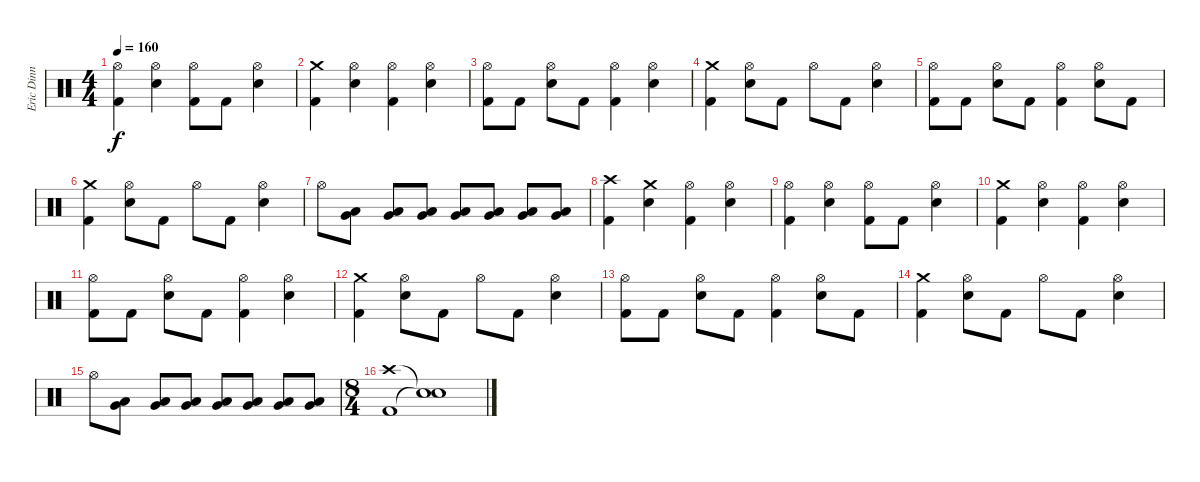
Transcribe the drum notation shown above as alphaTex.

\track ("Eric Dinn" "Eric Dinn") {instrument percussion}
\staff {score}
\articulation defaults
\ts (4 4)
\tempo 160
\clef neutral
\ks c
("Hi-Hat (open)" "Kick (hit) 2").4{dy f} ("Hi-Hat (open)" "Snare (hit) 2").4 ("Hi-Hat (open)" "Kick (hit) 2").8 "Kick (hit) 2".8 ("Hi-Hat (open)" "Snare (hit) 2").4 |
("Crash medium (hit)" "Kick (hit) 2").4 ("Hi-Hat (open)" "Snare (hit) 2").4 ("Hi-Hat (open)" "Kick (hit) 2").4 ("Hi-Hat (open)" "Snare (hit) 2").4 |
("Hi-Hat (open)" "Kick (hit) 2").8 "Kick (hit) 2".8 ("Hi-Hat (open)" "Snare (hit) 2").8 "Kick (hit) 2".8 ("Hi-Hat (open)" "Kick (hit) 2").4 ("Hi-Hat (open)" "Snare (hit) 2").4 |
("Crash medium (hit)" "Kick (hit) 2").4 ("Hi-Hat (open)" "Snare (hit) 2").8 "Kick (hit) 2".8 "Hi-Hat (open)".8 "Kick (hit) 2".8 ("Hi-Hat (open)" "Snare (hit) 2").4 |
("Hi-Hat (open)" "Kick (hit) 2").8 "Kick (hit) 2".8 ("Hi-Hat (open)" "Snare (hit) 2").8 "Kick (hit) 2".8 ("Hi-Hat (open)" "Kick (hit) 2").4 ("Hi-Hat (open)" "Snare (hit) 2").8 "Kick (hit) 2".8 |
("Crash medium (hit)" "Kick (hit) 2").4 ("Hi-Hat (open)" "Snare (hit) 2").8 "Kick (hit) 2".8 "Hi-Hat (open)".8 "Kick (hit) 2".8 ("Hi-Hat (open)" "Snare (hit) 2").4 |
"Hi-Hat (open)".8 ("Very Low Tom (hit)" "Low Tom (hit)").8 ("Very Low Tom (hit)" "Low Tom (hit)").8 ("Very Low Tom (hit)" "Low Tom (hit)").8 ("Very Low Tom (hit)" "Low Tom (hit)").8 ("Very Low Tom (hit)" "Low Tom (hit)").8 ("Very Low Tom (hit)" "Low Tom (hit)").8 ("Very Low Tom (hit)" "Low Tom (hit)").8 |
("Crash high (hit)" "Kick (hit) 2").4 ("Crash medium (hit)" "Snare (hit) 2").4 ("Hi-Hat (open)" "Kick (hit) 2").4 ("Hi-Hat (open)" "Snare (hit) 2").4 |
("Hi-Hat (open)" "Kick (hit) 2").4 ("Hi-Hat (open)" "Snare (hit) 2").4 ("Hi-Hat (open)" "Kick (hit) 2").8 "Kick (hit) 2".8 ("Hi-Hat (open)" "Snare (hit) 2").4 |
("Crash medium (hit)" "Kick (hit) 2").4 ("Hi-Hat (open)" "Snare (hit) 2").4 ("Hi-Hat (open)" "Kick (hit) 2").4 ("Hi-Hat (open)" "Snare (hit) 2").4 |
("Hi-Hat (open)" "Kick (hit) 2").8 "Kick (hit) 2".8 ("Hi-Hat (open)" "Snare (hit) 2").8 "Kick (hit) 2".8 ("Hi-Hat (open)" "Kick (hit) 2").4 ("Hi-Hat (open)" "Snare (hit) 2").4 |
("Crash medium (hit)" "Kick (hit) 2").4 ("Hi-Hat (open)" "Snare (hit) 2").8 "Kick (hit) 2".8 "Hi-Hat (open)".8 "Kick (hit) 2".8 ("Hi-Hat (open)" "Snare (hit) 2").4 |
("Hi-Hat (open)" "Kick (hit) 2").8 "Kick (hit) 2".8 ("Hi-Hat (open)" "Snare (hit) 2").8 "Kick (hit) 2".8 ("Hi-Hat (open)" "Kick (hit) 2").4 ("Hi-Hat (open)" "Snare (hit) 2").8 "Kick (hit) 2".8 |
("Crash medium (hit)" "Kick (hit) 2").4 ("Hi-Hat (open)" "Snare (hit) 2").8 "Kick (hit) 2".8 "Hi-Hat (open)".8 "Kick (hit) 2".8 ("Hi-Hat (open)" "Snare (hit) 2").4 |
"Hi-Hat (open)".8 ("Very Low Tom (hit)" "Low Tom (hit)").8 ("Very Low Tom (hit)" "Low Tom (hit)").8 ("Very Low Tom (hit)" "Low Tom (hit)").8 ("Very Low Tom (hit)" "Low Tom (hit)").8 ("Very Low Tom (hit)" "Low Tom (hit)").8 ("Very Low Tom (hit)" "Low Tom (hit)").8 ("Very Low Tom (hit)" "Low Tom (hit)").8 |
\ts (8 4)
("Crash high (hit)" "Kick (hit) 2").1 ("Snare (hit)"{t} "Snare (hit)"{t}).1
